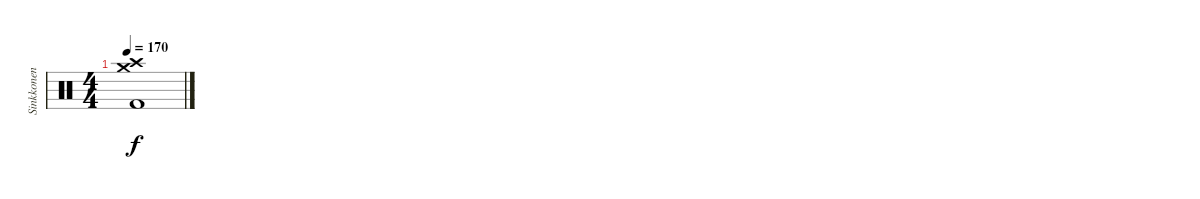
\track ("Sinkkonen" "Sinkkonen") {instrument percussion}
\staff {score}
\articulation defaults
\ts (4 4)
\tempo 170
\clef neutral
\ks c
("Crash medium (hit)" "Crash high (hit)" "Kick (hit) 2").1{dy f}
